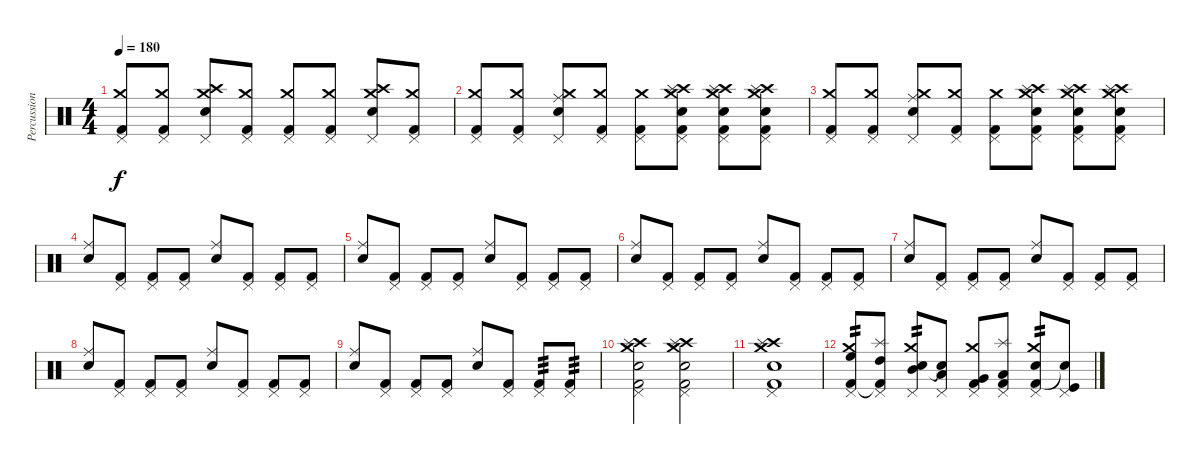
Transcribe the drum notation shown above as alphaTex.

\track ("Percussion" "Percussion") {instrument percussion}
\staff
\articulation defaults
\ts (4 4)
\tempo 180
\clef neutral
\ks c
("Pedal Hi-Hat (hit)" "Crash medium (hit)" "Kick (hit) 2").8{dy f} ("Pedal Hi-Hat (hit)" "Crash medium (hit)" "Kick (hit) 2").8 ("Pedal Hi-Hat (hit)" "Crash high (hit)" "Crash medium (hit)" "Snare (hit) 2").8 ("Pedal Hi-Hat (hit)" "Crash medium (hit)" "Kick (hit) 2").8 ("Pedal Hi-Hat (hit)" "Crash medium (hit)" "Kick (hit) 2").8 ("Pedal Hi-Hat (hit)" "Crash medium (hit)" "Kick (hit) 2").8 ("Pedal Hi-Hat (hit)" "Crash high (hit)" "Crash medium (hit)" "Snare (hit) 2").8 ("Pedal Hi-Hat (hit)" "Crash medium (hit)" "Kick (hit) 2").8 |
("Pedal Hi-Hat (hit)" "Crash medium (hit)" "Kick (hit) 2").8 ("Pedal Hi-Hat (hit)" "Crash medium (hit)" "Kick (hit) 2").8 ("Pedal Hi-Hat (hit)" "Ride (middle)" "Crash medium (hit)" "Snare (hit) 2").8 ("Pedal Hi-Hat (hit)" "Crash medium (hit)" "Kick (hit) 2").8 ("Pedal Hi-Hat (hit)" "Crash medium (hit)" "Kick (hit) 2").8 ("Pedal Hi-Hat (hit)" "Crash high (hit)" "Crash medium (hit)" "Splash (hit)" "Snare (hit) 2" "Kick (hit) 2").8 ("Pedal Hi-Hat (hit)" "Crash high (hit)" "Crash medium (hit)" "Splash (hit)" "Snare (hit) 2" "Kick (hit) 2").8 ("Pedal Hi-Hat (hit)" "Crash high (hit)" "Crash medium (hit)" "Splash (hit)" "Snare (hit) 2" "Kick (hit) 2").8 |
("Pedal Hi-Hat (hit)" "Crash medium (hit)" "Kick (hit) 2").8 ("Pedal Hi-Hat (hit)" "Crash medium (hit)" "Kick (hit) 2").8 ("Pedal Hi-Hat (hit)" "Ride (middle)" "Crash medium (hit)" "Snare (hit) 2").8 ("Pedal Hi-Hat (hit)" "Crash medium (hit)" "Kick (hit) 2").8 ("Pedal Hi-Hat (hit)" "Crash medium (hit)" "Kick (hit) 2").8 ("Pedal Hi-Hat (hit)" "Crash high (hit)" "Crash medium (hit)" "Splash (hit)" "Snare (hit) 2" "Kick (hit) 2").8 ("Pedal Hi-Hat (hit)" "Crash high (hit)" "Crash medium (hit)" "Splash (hit)" "Snare (hit) 2" "Kick (hit) 2").8 ("Pedal Hi-Hat (hit)" "Crash high (hit)" "Crash medium (hit)" "Splash (hit)" "Snare (hit) 2" "Kick (hit) 2").8 |
("Ride (middle)" "Snare (hit) 2").8 ("Pedal Hi-Hat (hit)" "Kick (hit) 2").8 ("Pedal Hi-Hat (hit)" "Kick (hit) 2").8 ("Pedal Hi-Hat (hit)" "Kick (hit) 2").8 ("Ride (middle)" "Snare (hit) 2").8 ("Pedal Hi-Hat (hit)" "Kick (hit) 2").8 ("Pedal Hi-Hat (hit)" "Kick (hit) 2").8 ("Pedal Hi-Hat (hit)" "Kick (hit) 2").8 |
("Ride (middle)" "Snare (hit) 2").8 ("Pedal Hi-Hat (hit)" "Kick (hit) 2").8 ("Pedal Hi-Hat (hit)" "Kick (hit) 2").8 ("Pedal Hi-Hat (hit)" "Kick (hit) 2").8 ("Ride (middle)" "Snare (hit) 2").8 ("Pedal Hi-Hat (hit)" "Kick (hit) 2").8 ("Pedal Hi-Hat (hit)" "Kick (hit) 2").8 ("Pedal Hi-Hat (hit)" "Kick (hit) 2").8 |
("Ride (middle)" "Snare (hit) 2").8 ("Pedal Hi-Hat (hit)" "Kick (hit) 2").8 ("Pedal Hi-Hat (hit)" "Kick (hit) 2").8 ("Pedal Hi-Hat (hit)" "Kick (hit) 2").8 ("Ride (middle)" "Snare (hit) 2").8 ("Pedal Hi-Hat (hit)" "Kick (hit) 2").8 ("Pedal Hi-Hat (hit)" "Kick (hit) 2").8 ("Pedal Hi-Hat (hit)" "Kick (hit) 2").8 |
("Ride (middle)" "Snare (hit) 2").8 ("Pedal Hi-Hat (hit)" "Kick (hit) 2").8 ("Pedal Hi-Hat (hit)" "Kick (hit) 2").8 ("Pedal Hi-Hat (hit)" "Kick (hit) 2").8 ("Ride (middle)" "Snare (hit) 2").8 ("Pedal Hi-Hat (hit)" "Kick (hit) 2").8 ("Pedal Hi-Hat (hit)" "Kick (hit) 2").8 ("Pedal Hi-Hat (hit)" "Kick (hit) 2").8 |
("Ride (middle)" "Snare (hit) 2").8 ("Pedal Hi-Hat (hit)" "Kick (hit) 2").8 ("Pedal Hi-Hat (hit)" "Kick (hit) 2").8 ("Pedal Hi-Hat (hit)" "Kick (hit) 2").8 ("Ride (middle)" "Snare (hit) 2").8 ("Pedal Hi-Hat (hit)" "Kick (hit) 2").8 ("Pedal Hi-Hat (hit)" "Kick (hit) 2").8 ("Pedal Hi-Hat (hit)" "Kick (hit) 2").8 |
("Ride (middle)" "Snare (hit) 2").8 ("Pedal Hi-Hat (hit)" "Kick (hit) 2").8 ("Pedal Hi-Hat (hit)" "Kick (hit) 2").8 ("Pedal Hi-Hat (hit)" "Kick (hit) 2").8 ("Ride (middle)" "Snare (hit) 2").8 ("Pedal Hi-Hat (hit)" "Kick (hit) 2").8 ("Pedal Hi-Hat (hit)" "Kick (hit) 2").8{tp 3} ("Pedal Hi-Hat (hit)" "Kick (hit) 2").8{tp 3} |
("Pedal Hi-Hat (hit)" "Crash high (hit)" "Crash medium (hit)" "Splash (hit)" "Snare (hit) 2" "Kick (hit) 2").2 ("Pedal Hi-Hat (hit)" "Crash high (hit)" "Crash medium (hit)" "Splash (hit)" "Snare (hit) 2" "Kick (hit) 2").2 |
("Pedal Hi-Hat (hit)" "Crash high (hit)" "Crash medium (hit)" "Splash (hit)" "Snare (hit) 2" "Kick (hit) 2").1 |
("Pedal Hi-Hat (hit)" "Crash medium (hit)" "High Floor Tom (hit)" "Kick (hit) 2").8{tp 2} ("Pedal Hi-Hat (hit)" "Splash (hit)" "High Tom (hit)" "Kick (hit) 2"{t}).8 ("Pedal Hi-Hat (hit)" "Crash medium (hit)" "Mid Tom (hit)" "Snare (hit) 2").8{tp 2} ("Pedal Hi-Hat (hit)" "Low Tom (hit)" "Snare (hit) 2"{t}).8 ("Pedal Hi-Hat (hit)" "Crash medium (hit)" "Very Low Tom (hit)" "Kick (hit) 2").8 ("Pedal Hi-Hat (hit)" "Splash (hit)" "Low Floor Tom (hit)" "Kick (hit) 2").8 ("Pedal Hi-Hat (hit)" "Crash medium (hit)" "Kick (hit) 2" "Snare (hit) 2").8{tp 2} ("Pedal Hi-Hat (hit)" "Kick (hit)" "Snare (hit) 2"{t}).8
